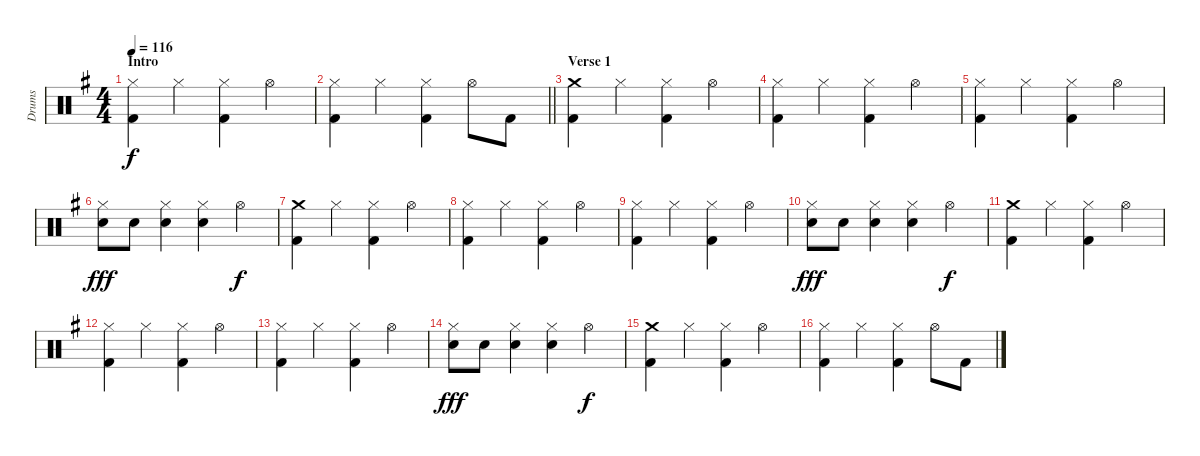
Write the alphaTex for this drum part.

\track ("Drums" "Drums") {instrument percussion}
\staff {score}
\articulation defaults
\ts (4 4)
\section ("" "Intro")
\tempo 116
\clef neutral
\ks g
("Hi-Hat (closed)" "Kick (hit) 2").4{dy f} "Hi-Hat (closed)".4 ("Hi-Hat (closed)" "Kick (hit) 2").4 "Hi-Hat (open)".4 |
\barLineRight lightlight
("Hi-Hat (closed)" "Kick (hit) 2").4 "Hi-Hat (closed)".4 ("Hi-Hat (closed)" "Kick (hit) 2").4 "Hi-Hat (open)".8 "Kick (hit) 2".8 |
\section ("" "Verse 1")
("Crash medium (hit)" "Kick (hit) 2").4 "Hi-Hat (closed)".4 ("Hi-Hat (closed)" "Kick (hit) 2").4 "Hi-Hat (open)".4 |
("Hi-Hat (closed)" "Kick (hit) 2").4 "Hi-Hat (closed)".4 ("Hi-Hat (closed)" "Kick (hit) 2").4 "Hi-Hat (open)".4 |
("Hi-Hat (closed)" "Kick (hit) 2").4 "Hi-Hat (closed)".4 ("Hi-Hat (closed)" "Kick (hit) 2").4 "Hi-Hat (open)".4 |
("Hi-Hat (closed)" "Snare (hit) 2").8{dy fff} "Snare (hit) 2".8 ("Hi-Hat (closed)" "Snare (hit) 2").4 ("Hi-Hat (closed)" "Snare (hit) 2").4 "Hi-Hat (open)".4{dy f} |
("Crash medium (hit)" "Kick (hit) 2").4 "Hi-Hat (closed)".4 ("Hi-Hat (closed)" "Kick (hit) 2").4 "Hi-Hat (open)".4 |
("Hi-Hat (closed)" "Kick (hit) 2").4 "Hi-Hat (closed)".4 ("Hi-Hat (closed)" "Kick (hit) 2").4 "Hi-Hat (open)".4 |
("Hi-Hat (closed)" "Kick (hit) 2").4 "Hi-Hat (closed)".4 ("Hi-Hat (closed)" "Kick (hit) 2").4 "Hi-Hat (open)".4 |
("Hi-Hat (closed)" "Snare (hit) 2").8{dy fff} "Snare (hit) 2".8 ("Hi-Hat (closed)" "Snare (hit) 2").4 ("Hi-Hat (closed)" "Snare (hit) 2").4 "Hi-Hat (open)".4{dy f} |
("Crash medium (hit)" "Kick (hit) 2").4 "Hi-Hat (closed)".4 ("Hi-Hat (closed)" "Kick (hit) 2").4 "Hi-Hat (open)".4 |
("Hi-Hat (closed)" "Kick (hit) 2").4 "Hi-Hat (closed)".4 ("Hi-Hat (closed)" "Kick (hit) 2").4 "Hi-Hat (open)".4 |
("Hi-Hat (closed)" "Kick (hit) 2").4 "Hi-Hat (closed)".4 ("Hi-Hat (closed)" "Kick (hit) 2").4 "Hi-Hat (open)".4 |
("Hi-Hat (closed)" "Snare (hit) 2").8{dy fff} "Snare (hit) 2".8 ("Hi-Hat (closed)" "Snare (hit) 2").4 ("Hi-Hat (closed)" "Snare (hit) 2").4 "Hi-Hat (open)".4{dy f} |
("Crash medium (hit)" "Kick (hit) 2").4 "Hi-Hat (closed)".4 ("Hi-Hat (closed)" "Kick (hit) 2").4 "Hi-Hat (open)".4 |
("Hi-Hat (closed)" "Kick (hit) 2").4 "Hi-Hat (closed)".4 ("Hi-Hat (closed)" "Kick (hit) 2").4 "Hi-Hat (open)".8 "Kick (hit) 2".8
